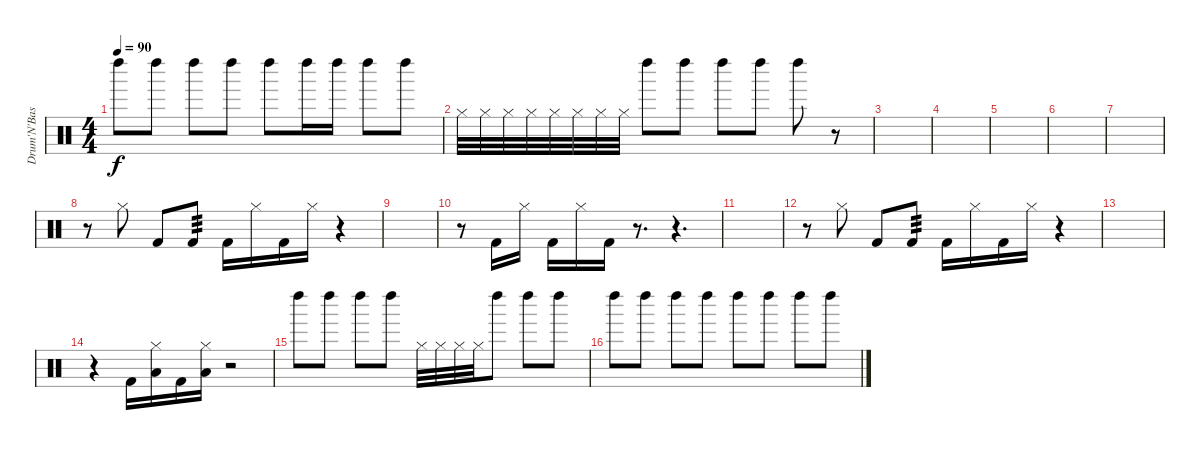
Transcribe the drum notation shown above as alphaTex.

\track ("Drum'N'Base Effects" "Drum'N'Bas") {instrument percussion}
\staff {score}
\articulation defaults
\ts (4 4)
\tempo 90
\clef neutral
\ks c "Left Maraca (hit)".8{dy f} "Left Maraca (hit)".8 "Left Maraca (hit)".8 "Left Maraca (hit)".8 "Left Maraca (hit)".8 "Left Maraca (hit)".16 "Left Maraca (hit)".16 "Left Maraca (hit)".8 "Left Maraca (hit)".8
|
"Hi-Hat (closed)".32 "Hi-Hat (closed)".32 "Hi-Hat (closed)".32 "Hi-Hat (closed)".32 "Hi-Hat (closed)".32 "Hi-Hat (closed)".32 "Hi-Hat (closed)".32 "Hi-Hat (closed)".32 "Left Maraca (hit)".8 "Left Maraca (hit)".8 "Left Maraca (hit)".8 "Left Maraca (hit)".8 "Left Maraca (hit)".8 r.8 |
|
|
|
|
|
r.8 "Hi-Hat (closed)".8 "Kick (hit) 2".8 "Kick (hit) 2".8{tp 3} "Kick (hit) 2".16 "Hi-Hat (closed)".16 "Kick (hit) 2".16 "Hi-Hat (closed)".16 r.4 |
|
r.8 "Kick (hit) 2".16 "Hi-Hat (closed)".16 "Kick (hit) 2".16 "Hi-Hat (closed)".16 "Kick (hit) 2".16 r.8{d} r.4{d} |
|
r.8 "Hi-Hat (closed)".8 "Kick (hit) 2".8 "Kick (hit) 2".8{tp 3} "Kick (hit) 2".16 "Hi-Hat (closed)".16 "Kick (hit) 2".16 "Hi-Hat (closed)".16 r.4 |
|
r.4 "Kick (hit) 2".16 ("Hi-Hat (closed)" "Low Floor Tom (hit)").16 "Kick (hit) 2".16 ("Hi-Hat (closed)" "Low Floor Tom (hit)").16 r.2 |
"Left Maraca (hit)".8 "Left Maraca (hit)".8 "Left Maraca (hit)".8 "Left Maraca (hit)".8 "Hi-Hat (closed)".32 "Hi-Hat (closed)".32 "Hi-Hat (closed)".32 "Hi-Hat (closed)".32 "Left Maraca (hit)".8 "Left Maraca (hit)".8 "Left Maraca (hit)".8 |
"Left Maraca (hit)".8 "Left Maraca (hit)".8 "Left Maraca (hit)".8 "Left Maraca (hit)".8 "Left Maraca (hit)".8 "Left Maraca (hit)".8 "Left Maraca (hit)".8 "Left Maraca (hit)".8
